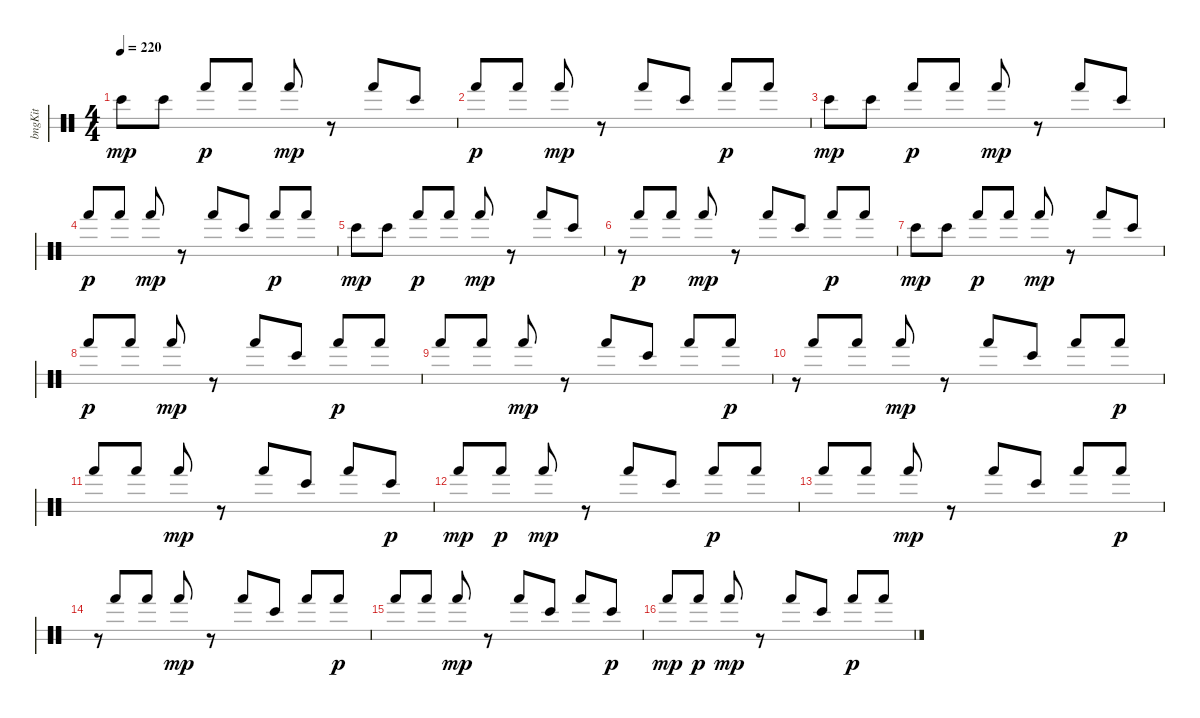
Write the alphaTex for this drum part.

\bracketExtendMode groupsimilarinstruments
\otherSystemsTrackNameOrientation horizontal
\track ("Bongos" "bngKit") {instrument percussion}
\staff {score 2}
\articulation defaults
\ts (4 4)
\tempo 220
\clef neutral
\ks c "Bongo High (hit)".8{dy mp beam Down} "Bongo High (hit)".8{beam Down} "Hand (hit)".8{dy p beam Up} "Hand (hit)".8{beam Up} "Hand (hit)".8{dy mp beam Up}
r.8{beam Up} "Hand (hit)".8{beam Up} "Bongo High (hit)".8{beam Up} |
"Hand (hit)".8{dy p beam Up} "Hand (hit)".8{beam Up} "Hand (hit)".8{dy mp beam Up} r.8{beam Up} "Hand (hit)".8{beam Up} "Bongo High (hit)".8{beam Up} "Hand (hit)".8{dy p beam Up} "Hand (hit)".8{beam Up} |
"Bongo High (hit)".8{dy mp beam Down} "Bongo High (hit)".8{beam Down} "Hand (hit)".8{dy p beam Up} "Hand (hit)".8{beam Up} "Hand (hit)".8{dy mp beam Up} r.8{beam Up} "Hand (hit)".8{beam Up} "Bongo High (hit)".8{beam Up} |
"Hand (hit)".8{dy p beam Up} "Hand (hit)".8{beam Up} "Hand (hit)".8{dy mp beam Up} r.8{beam Up} "Hand (hit)".8{beam Up} "Bongo High (hit)".8{beam Up} "Hand (hit)".8{dy p beam Up} "Hand (hit)".8{beam Up} |
"Bongo High (hit)".8{dy mp beam Down} "Bongo High (hit)".8{beam Down} "Hand (hit)".8{dy p beam Up} "Hand (hit)".8{beam Up} "Hand (hit)".8{dy mp beam Up} r.8{beam Up} "Hand (hit)".8{beam Up} "Bongo High (hit)".8{beam Up} |
r.8{gr beam Up} "Hand (hit)".8{dy p beam Up} "Hand (hit)".8{beam Up} "Hand (hit)".8{dy mp beam Up} r.8{beam Up} "Hand (hit)".8{beam Up} "Bongo High (hit)".8{beam Up} "Hand (hit)".8{dy p beam Up} "Hand (hit)".8{beam Up} |
"Bongo High (hit)".8{dy mp beam Down} "Bongo High (hit)".8{beam Down} "Hand (hit)".8{dy p beam Up} "Hand (hit)".8{beam Up} "Hand (hit)".8{dy mp beam Up} r.8{beam Up} "Hand (hit)".8{beam Up} "Bongo High (hit)".8{beam Up} |
"Hand (hit)".8{dy p beam Up} "Hand (hit)".8{beam Up} "Hand (hit)".8{dy mp beam Up} r.8{beam Up} "Hand (hit)".8{beam Up} "Bongo High (hit)".8{beam Up} "Hand (hit)".8{dy p beam Up} "Hand (hit)".8{beam Up} |
"Hand (hit)".8{beam Up} "Hand (hit)".8{beam Up} "Hand (hit)".8{dy mp beam Up} r.8{beam Up} "Hand (hit)".8{beam Up} "Bongo High (hit)".8{beam Up} "Hand (hit)".8{beam Up} "Hand (hit)".8{dy p beam Up} |
r.8{gr beam Up} "Hand (hit)".8{beam Up} "Hand (hit)".8{beam Up} "Hand (hit)".8{dy mp beam Up} r.8{beam Up} "Hand (hit)".8{beam Up} "Bongo High (hit)".8{beam Up} "Hand (hit)".8{beam Up} "Hand (hit)".8{dy p beam Up} |
"Hand (hit)".8{beam Up} "Hand (hit)".8{beam Up} "Hand (hit)".8{dy mp beam Up} r.8{beam Up} "Hand (hit)".8{beam Up} "Bongo High (hit)".8{beam Up} "Hand (hit)".8{beam Up} "Bongo High (hit)".8{dy p beam Up} |
"Hand (hit)".8{dy mp beam Up} "Hand (hit)".8{dy p beam Up} "Hand (hit)".8{dy mp beam Up} r.8{beam Up} "Hand (hit)".8{beam Up} "Bongo High (hit)".8{beam Up} "Hand (hit)".8{dy p beam Up} "Hand (hit)".8{beam Up} |
"Hand (hit)".8{beam Up} "Hand (hit)".8{beam Up} "Hand (hit)".8{dy mp beam Up} r.8{beam Up} "Hand (hit)".8{beam Up} "Bongo High (hit)".8{beam Up} "Hand (hit)".8{beam Up} "Hand (hit)".8{dy p beam Up} |
r.8{gr beam Up} "Hand (hit)".8{beam Up} "Hand (hit)".8{beam Up} "Hand (hit)".8{dy mp beam Up} r.8{beam Up} "Hand (hit)".8{beam Up} "Bongo High (hit)".8{beam Up} "Hand (hit)".8{beam Up} "Hand (hit)".8{dy p beam Up} |
"Hand (hit)".8{beam Up} "Hand (hit)".8{beam Up} "Hand (hit)".8{dy mp beam Up} r.8{beam Up} "Hand (hit)".8{beam Up} "Bongo High (hit)".8{beam Up} "Hand (hit)".8{beam Up} "Bongo High (hit)".8{dy p beam Up} |
"Hand (hit)".8{dy mp beam Up} "Hand (hit)".8{dy p beam Up} "Hand (hit)".8{dy mp beam Up} r.8{beam Up} "Hand (hit)".8{beam Up} "Bongo High (hit)".8{beam Up} "Hand (hit)".8{dy p beam Up} "Hand (hit)".8{beam Up}
